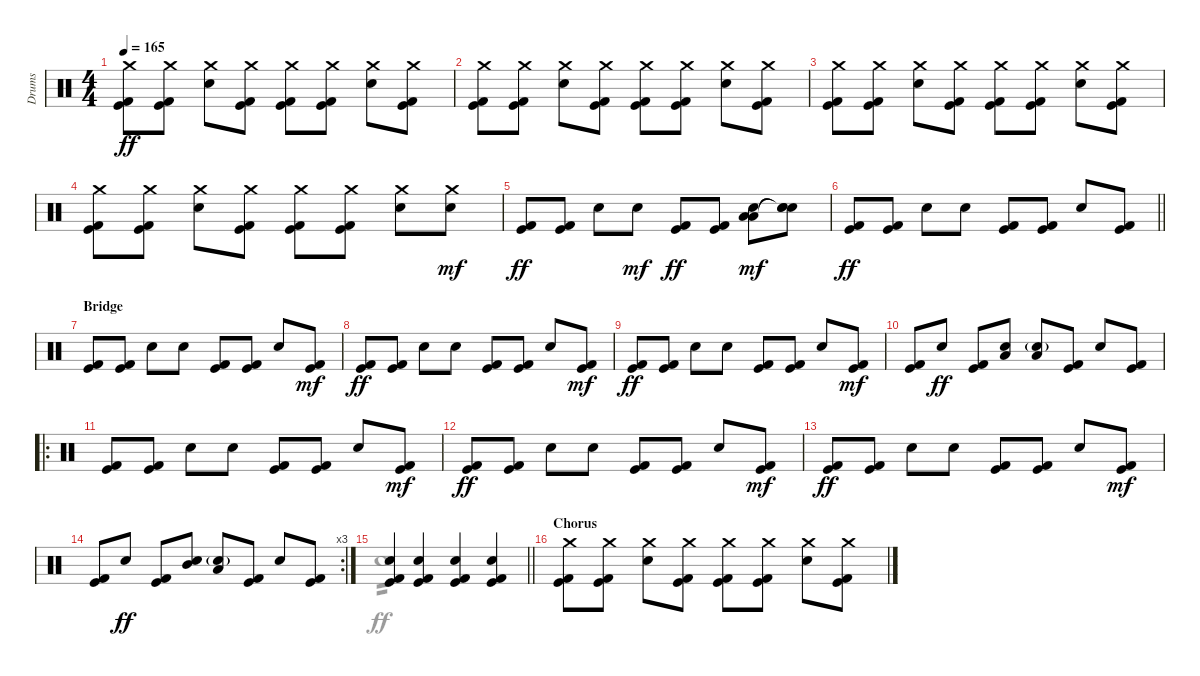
\track ("Drums" "Drums") {instrument percussion}
\staff
\articulation defaults
\voice
\ts (4 4)
\tempo 165
\clef neutral
\ks c
("Crash medium (hit)" "Kick (hit) 2" "Kick (hit)").8{dy ff} ("Crash medium (hit)" "Kick (hit) 2" "Kick (hit)").8 ("Crash medium (hit)" "Electric Snare (hit)").8 ("Crash medium (hit)" "Kick (hit) 2" "Kick (hit)").8 ("Crash medium (hit)" "Kick (hit) 2" "Kick (hit)").8 ("Crash medium (hit)" "Kick (hit) 2" "Kick (hit)").8 ("Crash medium (hit)" "Electric Snare (hit)").8 ("Crash medium (hit)" "Kick (hit) 2" "Kick (hit)").8 |
("Crash medium (hit)" "Kick (hit) 2" "Kick (hit)").8 ("Crash medium (hit)" "Kick (hit) 2" "Kick (hit)").8 ("Crash medium (hit)" "Electric Snare (hit)").8 ("Crash medium (hit)" "Kick (hit) 2" "Kick (hit)").8 ("Crash medium (hit)" "Kick (hit) 2" "Kick (hit)").8 ("Crash medium (hit)" "Kick (hit) 2" "Kick (hit)").8 ("Crash medium (hit)" "Electric Snare (hit)").8 ("Crash medium (hit)" "Kick (hit) 2" "Kick (hit)").8 |
("Crash medium (hit)" "Kick (hit) 2" "Kick (hit)").8 ("Crash medium (hit)" "Kick (hit) 2" "Kick (hit)").8 ("Crash medium (hit)" "Electric Snare (hit)").8 ("Crash medium (hit)" "Kick (hit) 2" "Kick (hit)").8 ("Crash medium (hit)" "Kick (hit) 2" "Kick (hit)").8 ("Crash medium (hit)" "Kick (hit) 2" "Kick (hit)").8 ("Crash medium (hit)" "Electric Snare (hit)").8 ("Crash medium (hit)" "Kick (hit) 2" "Kick (hit)").8 |
("Crash medium (hit)" "Kick (hit) 2" "Kick (hit)").8 ("Crash medium (hit)" "Kick (hit) 2" "Kick (hit)").8 ("Crash medium (hit)" "Electric Snare (hit)").8 ("Crash medium (hit)" "Kick (hit) 2" "Kick (hit)").8 ("Crash medium (hit)" "Kick (hit) 2" "Kick (hit)").8 ("Crash medium (hit)" "Kick (hit) 2" "Kick (hit)").8 ("Crash medium (hit)" "Electric Snare (hit)").8 ("Crash medium (hit)" "Electric Snare (hit)").8{dy mf} |
("Kick (hit) 2" "Kick (hit)").8{dy ff} ("Kick (hit) 2" "Kick (hit)").8 "Electric Snare (hit)".8 "Electric Snare (hit)".8{dy mf} ("Kick (hit) 2" "Kick (hit)").8{dy ff} ("Kick (hit) 2" "Kick (hit)").8 ("Electric Snare (hit)" "Low Tom (hit)" "Low Floor Tom (hit)").8{dy mf} ("Electric Snare (hit)" "Snare (hit)"{t} "Snare (hit)"{t}).8 |
\barLineRight lightlight
("Kick (hit) 2" "Kick (hit)").8{dy ff} ("Kick (hit) 2" "Kick (hit)").8 "Electric Snare (hit)".8 "Electric Snare (hit)".8 ("Kick (hit) 2" "Kick (hit)").8 ("Kick (hit) 2" "Kick (hit)").8 "Electric Snare (hit)".8 ("Kick (hit) 2" "Kick (hit)").8 |
\section ("" "Bridge")
("Kick (hit) 2" "Kick (hit)").8 ("Kick (hit) 2" "Kick (hit)").8 "Electric Snare (hit)".8 "Electric Snare (hit)".8 ("Kick (hit) 2" "Kick (hit)").8 ("Kick (hit) 2" "Kick (hit)").8 "Electric Snare (hit)".8 ("Kick (hit) 2" "Kick (hit)").8{dy mf} |
("Kick (hit) 2" "Kick (hit)").8{dy ff} ("Kick (hit) 2" "Kick (hit)").8 "Electric Snare (hit)".8 "Electric Snare (hit)".8 ("Kick (hit) 2" "Kick (hit)").8 ("Kick (hit) 2" "Kick (hit)").8 "Electric Snare (hit)".8 ("Kick (hit) 2" "Kick (hit)").8{dy mf} |
("Kick (hit) 2" "Kick (hit)").8{dy ff} ("Kick (hit) 2" "Kick (hit)").8 "Electric Snare (hit)".8 "Electric Snare (hit)".8 ("Kick (hit) 2" "Kick (hit)").8 ("Kick (hit) 2" "Kick (hit)").8 "Electric Snare (hit)".8 ("Kick (hit) 2" "Kick (hit)").8{dy mf} |
("Kick (hit) 2" "Kick (hit)").8 "Electric Snare (hit)".8{dy ff} ("Kick (hit) 2" "Kick (hit)").8 ("Electric Snare (hit)" "Low Tom (hit)").8 ("Electric Snare (hit)"{g} "Low Floor Tom (hit)").8 ("Kick (hit) 2" "Kick (hit)").8 "Electric Snare (hit)".8 ("Kick (hit) 2" "Kick (hit)").8 |
\ro
("Kick (hit) 2" "Kick (hit)").8 ("Kick (hit) 2" "Kick (hit)").8 "Electric Snare (hit)".8 "Electric Snare (hit)".8 ("Kick (hit) 2" "Kick (hit)").8 ("Kick (hit) 2" "Kick (hit)").8 "Electric Snare (hit)".8 ("Kick (hit) 2" "Kick (hit)").8{dy mf} |
("Kick (hit) 2" "Kick (hit)").8{dy ff} ("Kick (hit) 2" "Kick (hit)").8 "Electric Snare (hit)".8 "Electric Snare (hit)".8 ("Kick (hit) 2" "Kick (hit)").8 ("Kick (hit) 2" "Kick (hit)").8 "Electric Snare (hit)".8 ("Kick (hit) 2" "Kick (hit)").8{dy mf} |
("Kick (hit) 2" "Kick (hit)").8{dy ff} ("Kick (hit) 2" "Kick (hit)").8 "Electric Snare (hit)".8 "Electric Snare (hit)".8 ("Kick (hit) 2" "Kick (hit)").8 ("Kick (hit) 2" "Kick (hit)").8 "Electric Snare (hit)".8 ("Kick (hit) 2" "Kick (hit)").8{dy mf} |
\rc 3
("Kick (hit) 2" "Kick (hit)").8 "Electric Snare (hit)".8{dy ff} ("Kick (hit) 2" "Kick (hit)").8 ("Electric Snare (hit)" "Mid Tom (hit)").8 ("Electric Snare (hit)"{g} "Low Floor Tom (hit)").8 ("Kick (hit) 2" "Kick (hit)").8 "Electric Snare (hit)".8 ("Kick (hit) 2" "Kick (hit)").8 |
\barLineRight lightlight
("Kick (hit) 2" "Kick (hit)" "Electric Snare (hit)").4 ("Kick (hit) 2" "Kick (hit)" "Electric Snare (hit)").4 ("Kick (hit) 2" "Kick (hit)" "Electric Snare (hit)").4 ("Kick (hit) 2" "Kick (hit)" "Electric Snare (hit)").4 |
\section ("" "Chorus")
("Crash medium (hit)" "Kick (hit) 2" "Kick (hit)").8 ("Crash medium (hit)" "Kick (hit) 2" "Kick (hit)").8 ("Crash medium (hit)" "Electric Snare (hit)").8 ("Crash medium (hit)" "Kick (hit) 2" "Kick (hit)").8 ("Crash medium (hit)" "Kick (hit) 2" "Kick (hit)").8 ("Crash medium (hit)" "Kick (hit) 2" "Kick (hit)").8 ("Crash medium (hit)" "Electric Snare (hit)").8 ("Crash medium (hit)" "Kick (hit) 2" "Kick (hit)").8
\voice
\clef neutral
\ottava regular
\simile none
\ks c
|
|
|
|
|
\barLineRight lightlight
|
|
|
|
|
|
|
|
|
\barLineRight lightlight "Electric Snare (hit)".1{tp 2 dy ff}
|
